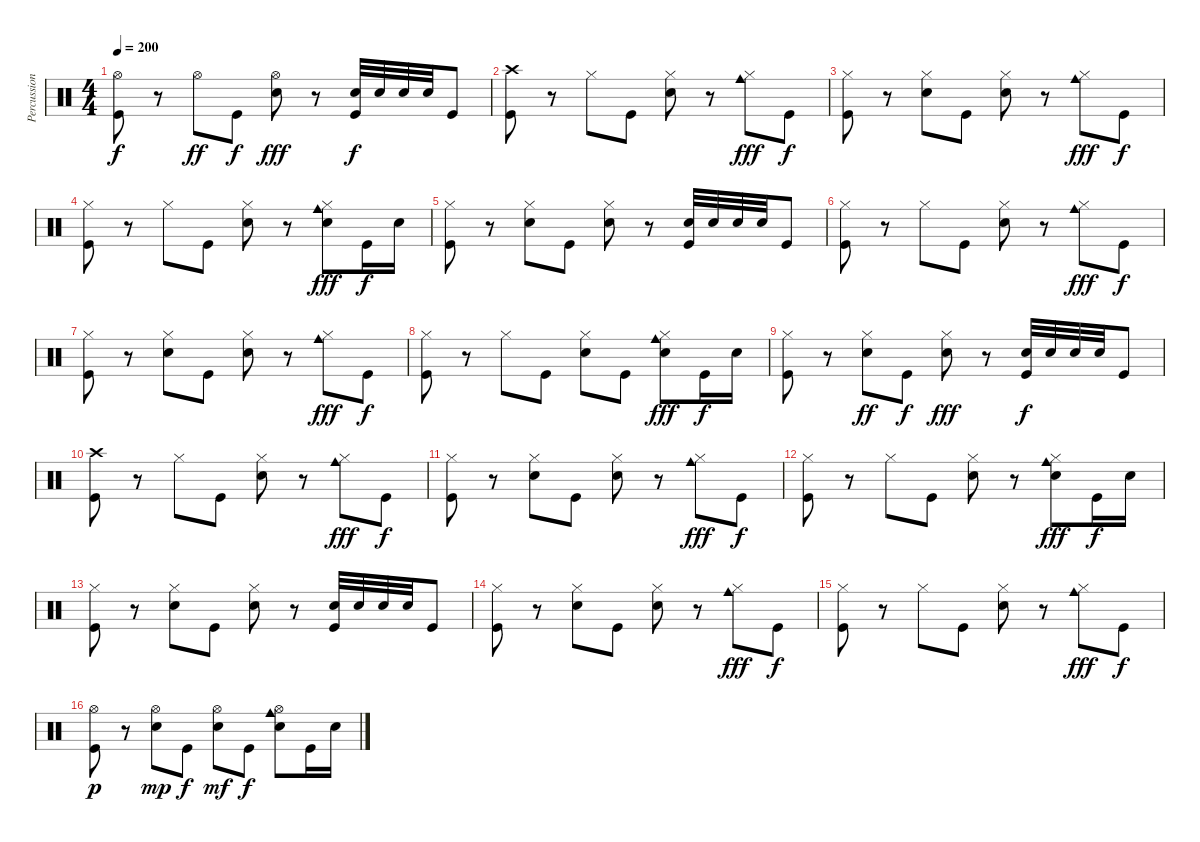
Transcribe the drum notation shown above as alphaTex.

\track ("Percussion" "Percussion") {instrument percussion}
\staff {score}
\articulation defaults
\ts (4 4)
\tempo 200
\clef neutral
\ks c
("Hi-Hat (open)" "Kick (hit)").8{dy f} r.8 "Hi-Hat (open)".8{dy ff} "Kick (hit)".8{dy f} ("Hi-Hat (open)" "Electric Snare (hit)").8{dy fff} r.8 ("Electric Snare (hit)" "Kick (hit)").32{dy f} "Electric Snare (hit)".32 "Electric Snare (hit)".32 "Electric Snare (hit)".32 "Kick (hit)".8 |
("Crash high (hit)" "Kick (hit)").8 r.8 "Hi-Hat (closed)".8 "Kick (hit)".8 ("Hi-Hat (closed)" "Electric Snare (hit)").8 r.8 ("Hi-Hat (closed)" "Cowbell medium (hit)").8{dy fff} "Kick (hit)".8{dy f} |
("Hi-Hat (closed)" "Kick (hit)").8 r.8 ("Hi-Hat (closed)" "Electric Snare (hit)").8 "Kick (hit)".8 ("Hi-Hat (closed)" "Electric Snare (hit)").8 r.8 ("Hi-Hat (closed)" "Cowbell medium (hit)").8{dy fff} "Kick (hit)".8{dy f} |
("Hi-Hat (closed)" "Kick (hit)").8 r.8 "Hi-Hat (closed)".8 "Kick (hit)".8 ("Hi-Hat (closed)" "Electric Snare (hit)").8 r.8 ("Hi-Hat (closed)" "Cowbell medium (hit)" "Electric Snare (hit)").8{dy fff} "Kick (hit)".16{dy f} "Electric Snare (hit)".16 |
("Hi-Hat (closed)" "Kick (hit)").8 r.8 ("Hi-Hat (closed)" "Electric Snare (hit)").8 "Kick (hit)".8 ("Hi-Hat (closed)" "Electric Snare (hit)").8 r.8 ("Electric Snare (hit)" "Kick (hit)").32 "Electric Snare (hit)".32 "Electric Snare (hit)".32 "Electric Snare (hit)".32 "Kick (hit)".8 |
("Hi-Hat (closed)" "Kick (hit)").8 r.8 "Hi-Hat (closed)".8 "Kick (hit)".8 ("Hi-Hat (closed)" "Electric Snare (hit)").8 r.8 ("Hi-Hat (closed)" "Cowbell medium (hit)").8{dy fff} "Kick (hit)".8{dy f} |
("Hi-Hat (closed)" "Kick (hit)").8 r.8 ("Hi-Hat (closed)" "Electric Snare (hit)").8 "Kick (hit)".8 ("Hi-Hat (closed)" "Electric Snare (hit)").8 r.8 ("Hi-Hat (closed)" "Cowbell medium (hit)").8{dy fff} "Kick (hit)".8{dy f} |
("Hi-Hat (closed)" "Kick (hit)").8 r.8 "Hi-Hat (closed)".8 "Kick (hit)".8 ("Hi-Hat (closed)" "Electric Snare (hit)").8 "Kick (hit)".8 ("Hi-Hat (closed)" "Cowbell medium (hit)" "Electric Snare (hit)").8{dy fff} "Kick (hit)".16{dy f} "Electric Snare (hit)".16 |
("Hi-Hat (closed)" "Kick (hit)").8 r.8 ("Hi-Hat (closed)" "Electric Snare (hit)").8{dy ff} "Kick (hit)".8{dy f} ("Hi-Hat (closed)" "Electric Snare (hit)").8{dy fff} r.8 ("Electric Snare (hit)" "Kick (hit)").32{dy f} "Electric Snare (hit)".32 "Electric Snare (hit)".32 "Electric Snare (hit)".32 "Kick (hit)".8 |
("Crash high (hit)" "Kick (hit)").8 r.8 "Hi-Hat (closed)".8 "Kick (hit)".8 ("Hi-Hat (closed)" "Electric Snare (hit)").8 r.8 ("Hi-Hat (closed)" "Cowbell medium (hit)").8{dy fff} "Kick (hit)".8{dy f} |
("Hi-Hat (closed)" "Kick (hit)").8 r.8 ("Hi-Hat (closed)" "Electric Snare (hit)").8 "Kick (hit)".8 ("Hi-Hat (closed)" "Electric Snare (hit)").8 r.8 ("Hi-Hat (closed)" "Cowbell medium (hit)").8{dy fff} "Kick (hit)".8{dy f} |
("Hi-Hat (closed)" "Kick (hit)").8 r.8 "Hi-Hat (closed)".8 "Kick (hit)".8 ("Hi-Hat (closed)" "Electric Snare (hit)").8 r.8 ("Hi-Hat (closed)" "Cowbell medium (hit)" "Electric Snare (hit)").8{dy fff} "Kick (hit)".16{dy f} "Electric Snare (hit)".16 |
("Hi-Hat (closed)" "Kick (hit)").8 r.8 ("Hi-Hat (closed)" "Electric Snare (hit)").8 "Kick (hit)".8 ("Hi-Hat (closed)" "Electric Snare (hit)").8 r.8 ("Electric Snare (hit)" "Kick (hit)").32 "Electric Snare (hit)".32 "Electric Snare (hit)".32 "Electric Snare (hit)".32 "Kick (hit)".8 |
("Hi-Hat (closed)" "Kick (hit)").8 r.8 ("Hi-Hat (closed)" "Electric Snare (hit)").8 "Kick (hit)".8 ("Hi-Hat (closed)" "Electric Snare (hit)").8 r.8 ("Hi-Hat (closed)" "Cowbell medium (hit)").8{dy fff} "Kick (hit)".8{dy f} |
("Hi-Hat (closed)" "Kick (hit)").8 r.8 "Hi-Hat (closed)".8 "Kick (hit)".8 ("Hi-Hat (closed)" "Electric Snare (hit)").8 r.8 ("Hi-Hat (closed)" "Cowbell medium (hit)").8{dy fff} "Kick (hit)".8{dy f} |
("Hi-Hat (open)" "Kick (hit)").8{dy p} r.8 ("Hi-Hat (open)" "Electric Snare (hit)").8{dy mp} "Kick (hit)".8{dy f} ("Hi-Hat (open)" "Electric Snare (hit)").8{dy mf} "Kick (hit)".8{dy f} ("Hi-Hat (open)" "Cowbell medium (hit)" "Electric Snare (hit)").8 "Kick (hit)".16 "Electric Snare (hit)".16
